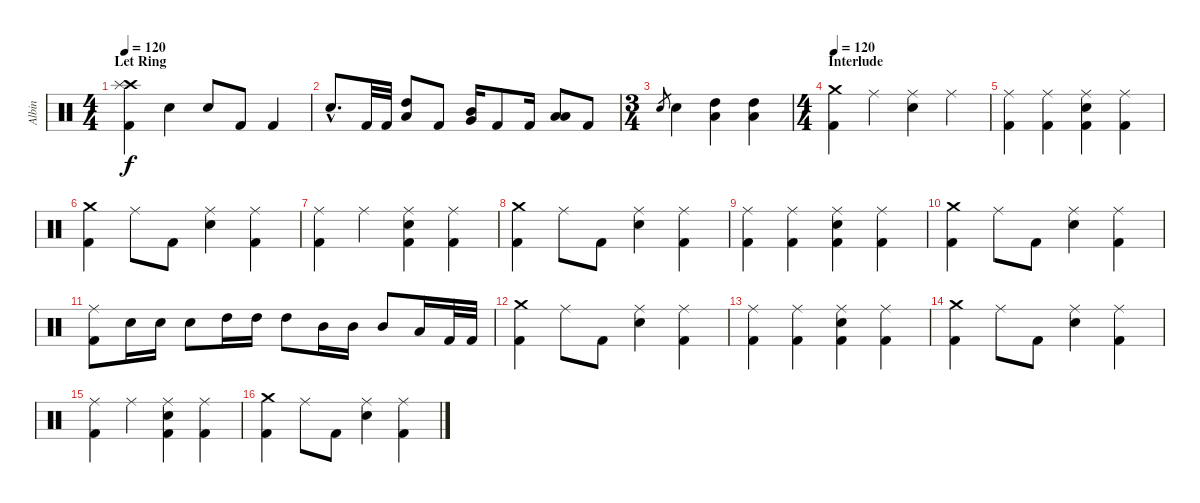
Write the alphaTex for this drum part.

\track ("Albin" "Albin") {instrument percussion}
\staff {score}
\articulation defaults
\ts (4 4)
\section ("" "Let Ring")
\tempo 120
\clef neutral
\ks c
("Crash high (hit)" "Splash (hit)" "Kick (hit) 2").4{dy f} "Electric Snare (hit)".4 "Electric Snare (hit)".8 "Kick (hit) 2".8 "Kick (hit) 2".4 |
"Electric Snare (hit)"{hac}.8{d} "Kick (hit) 2".32 "Kick (hit) 2".32 ("High Tom (hit)" "Low Tom (hit)").8 "Kick (hit) 2".8 ("Mid Tom (hit)" "Very Low Tom (hit)").16 "Kick (hit) 2".8 "Kick (hit) 2".16 ("Low Tom (hit)" "Low Floor Tom (hit)").8 "Kick (hit) 2".8 |
\ts (3 4)
"Electric Snare (hit)".8{gr} "Electric Snare (hit)".4 ("High Tom (hit)" "Low Tom (hit)").4 ("High Tom (hit)" "Low Tom (hit)").4 |
\ts (4 4)
\section ("" "Interlude")
\tempo 120
("Crash medium (hit)" "Kick (hit) 2").4 "Ride (middle)".4 ("Ride (middle)" "Electric Snare (hit)").4 "Ride (middle)".4 |
("Ride (middle)" "Kick (hit) 2").4 ("Ride (middle)" "Kick (hit) 2").4 ("Ride (middle)" "Electric Snare (hit)" "Kick (hit) 2").4 ("Ride (middle)" "Kick (hit) 2").4 |
("Crash medium (hit)" "Kick (hit) 2").4 "Ride (middle)".8 "Kick (hit) 2".8 ("Ride (middle)" "Electric Snare (hit)").4 ("Ride (middle)" "Kick (hit) 2").4 |
("Ride (middle)" "Kick (hit) 2").4 "Ride (middle)".4 ("Ride (middle)" "Electric Snare (hit)" "Kick (hit) 2").4 ("Ride (middle)" "Kick (hit) 2").4 |
("Crash medium (hit)" "Kick (hit) 2").4 "Ride (middle)".8 "Kick (hit) 2".8 ("Ride (middle)" "Electric Snare (hit)").4 ("Ride (middle)" "Kick (hit) 2").4 |
("Ride (middle)" "Kick (hit) 2").4 ("Ride (middle)" "Kick (hit) 2").4 ("Ride (middle)" "Electric Snare (hit)" "Kick (hit) 2").4 ("Ride (middle)" "Kick (hit) 2").4 |
("Crash medium (hit)" "Kick (hit) 2").4 "Ride (middle)".8 "Kick (hit) 2".8 ("Ride (middle)" "Electric Snare (hit)").4 ("Ride (middle)" "Kick (hit) 2").4 |
("Ride (middle)" "Kick (hit) 2").8 "Electric Snare (hit)".16 "Electric Snare (hit)".16 "Electric Snare (hit)".8 "High Tom (hit)".16 "High Tom (hit)".16 "High Tom (hit)".8 "Mid Tom (hit)".16 "Mid Tom (hit)".16 "Mid Tom (hit)".8 "Low Tom (hit)".16 "Kick (hit) 2".32 "Kick (hit) 2".32 |
("Crash medium (hit)" "Kick (hit) 2").4 "Ride (middle)".8 "Kick (hit) 2".8 ("Ride (middle)" "Electric Snare (hit)").4 ("Ride (middle)" "Kick (hit) 2").4 |
("Ride (middle)" "Kick (hit) 2").4 ("Ride (middle)" "Kick (hit) 2").4 ("Ride (middle)" "Electric Snare (hit)" "Kick (hit) 2").4 ("Ride (middle)" "Kick (hit) 2").4 |
("Crash medium (hit)" "Kick (hit) 2").4 "Ride (middle)".8 "Kick (hit) 2".8 ("Ride (middle)" "Electric Snare (hit)").4 ("Ride (middle)" "Kick (hit) 2").4 |
("Ride (middle)" "Kick (hit) 2").4 "Ride (middle)".4 ("Ride (middle)" "Electric Snare (hit)" "Kick (hit) 2").4 ("Ride (middle)" "Kick (hit) 2").4 |
("Crash medium (hit)" "Kick (hit) 2").4 "Ride (middle)".8 "Kick (hit) 2".8 ("Ride (middle)" "Electric Snare (hit)").4 ("Ride (middle)" "Kick (hit) 2").4
